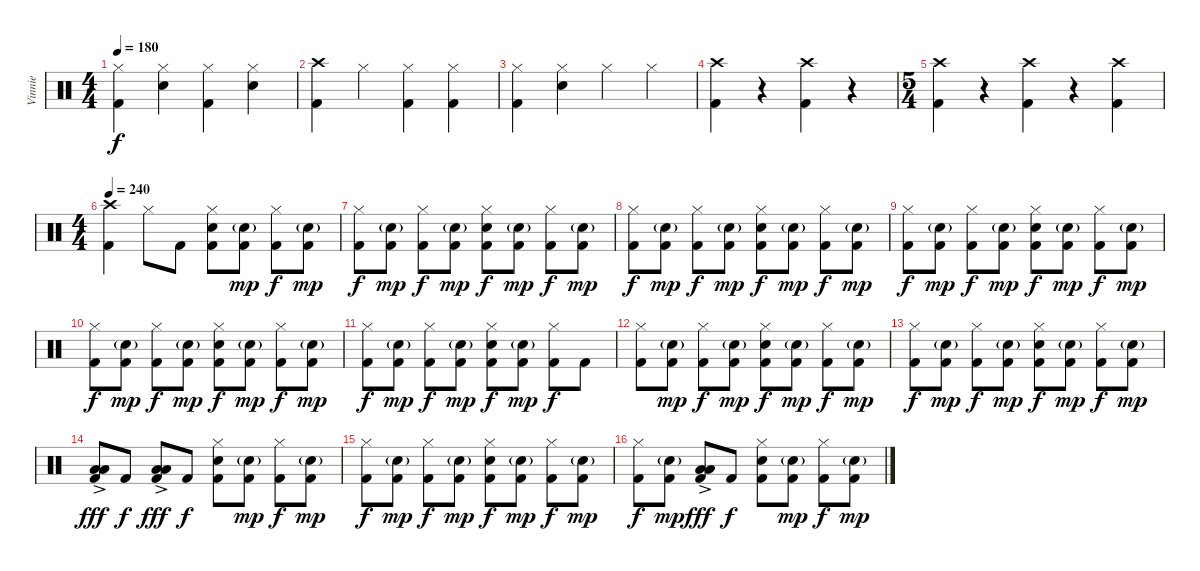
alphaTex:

\track ("Vinnie" "Vinnie") {instrument percussion}
\staff {score}
\articulation defaults
\ts (4 4)
\tempo 180
\clef neutral
\ks c
("Hi-Hat (closed)" "Kick (hit) 2").4{dy f} ("Hi-Hat (closed)" "Electric Snare (hit)").4 ("Hi-Hat (closed)" "Kick (hit) 2").4 ("Hi-Hat (closed)" "Electric Snare (hit)").4 |
("Crash high (hit)" "Kick (hit) 2").4 "Hi-Hat (closed)".4 ("Hi-Hat (closed)" "Kick (hit) 2").4 ("Hi-Hat (closed)" "Kick (hit) 2").4 |
("Hi-Hat (closed)" "Kick (hit) 2").4 ("Hi-Hat (closed)" "Electric Snare (hit)").4 "Hi-Hat (closed)".4 "Hi-Hat (closed)".4 |
("Crash high (hit)" "Kick (hit) 2").4 r.4 ("Crash high (hit)" "Kick (hit) 2").4 r.4 |
\ts (5 4)
("Crash high (hit)" "Kick (hit) 2").4 r.4 ("Crash high (hit)" "Kick (hit) 2").4 r.4 ("Crash high (hit)" "Kick (hit) 2").4 |
\ts (4 4)
\tempo 240
("Crash high (hit)" "Kick (hit) 2").4 "Hi-Hat (closed)".8 "Kick (hit) 2".8 ("Hi-Hat (closed)" "Electric Snare (hit)" "Kick (hit) 2").8 ("Electric Snare (hit)"{g} "Kick (hit) 2").8{dy mp} ("Hi-Hat (closed)" "Kick (hit) 2").8{dy f} ("Electric Snare (hit)"{g} "Kick (hit) 2").8{dy mp} |
("Hi-Hat (closed)" "Kick (hit) 2").8{dy f} ("Electric Snare (hit)"{g} "Kick (hit) 2").8{dy mp} ("Hi-Hat (closed)" "Kick (hit) 2").8{dy f} ("Electric Snare (hit)"{g} "Kick (hit) 2").8{dy mp} ("Hi-Hat (closed)" "Electric Snare (hit)" "Kick (hit) 2").8{dy f} ("Electric Snare (hit)"{g} "Kick (hit) 2").8{dy mp} ("Hi-Hat (closed)" "Kick (hit) 2").8{dy f} ("Electric Snare (hit)"{g} "Kick (hit) 2").8{dy mp} |
("Hi-Hat (closed)" "Kick (hit) 2").8{dy f} ("Electric Snare (hit)"{g} "Kick (hit) 2").8{dy mp} ("Hi-Hat (closed)" "Kick (hit) 2").8{dy f} ("Electric Snare (hit)"{g} "Kick (hit) 2").8{dy mp} ("Hi-Hat (closed)" "Electric Snare (hit)" "Kick (hit) 2").8{dy f} ("Electric Snare (hit)"{g} "Kick (hit) 2").8{dy mp} ("Hi-Hat (closed)" "Kick (hit) 2").8{dy f} ("Electric Snare (hit)"{g} "Kick (hit) 2").8{dy mp} |
("Hi-Hat (closed)" "Kick (hit) 2").8{dy f} ("Electric Snare (hit)"{g} "Kick (hit) 2").8{dy mp} ("Hi-Hat (closed)" "Kick (hit) 2").8{dy f} ("Electric Snare (hit)"{g} "Kick (hit) 2").8{dy mp} ("Hi-Hat (closed)" "Electric Snare (hit)" "Kick (hit) 2").8{dy f} ("Electric Snare (hit)"{g} "Kick (hit) 2").8{dy mp} ("Hi-Hat (closed)" "Kick (hit) 2").8{dy f} ("Electric Snare (hit)"{g} "Kick (hit) 2").8{dy mp} |
("Hi-Hat (closed)" "Kick (hit) 2").8{dy f} ("Electric Snare (hit)"{g} "Kick (hit) 2").8{dy mp} ("Hi-Hat (closed)" "Kick (hit) 2").8{dy f} ("Electric Snare (hit)"{g} "Kick (hit) 2").8{dy mp} ("Hi-Hat (closed)" "Electric Snare (hit)" "Kick (hit) 2").8{dy f} ("Electric Snare (hit)"{g} "Kick (hit) 2").8{dy mp} ("Hi-Hat (closed)" "Kick (hit) 2").8{dy f} ("Electric Snare (hit)"{g} "Kick (hit) 2").8{dy mp} |
("Hi-Hat (closed)" "Kick (hit) 2").8{dy f} ("Electric Snare (hit)"{g} "Kick (hit) 2").8{dy mp} ("Hi-Hat (closed)" "Kick (hit) 2").8{dy f} ("Electric Snare (hit)"{g} "Kick (hit) 2").8{dy mp} ("Hi-Hat (closed)" "Electric Snare (hit)" "Kick (hit) 2").8{dy f} ("Electric Snare (hit)"{g} "Kick (hit) 2").8{dy mp} ("Hi-Hat (closed)" "Kick (hit) 2").8{dy f} "Kick (hit) 2".8 |
("Hi-Hat (closed)" "Kick (hit) 2").8 ("Electric Snare (hit)"{g} "Kick (hit) 2").8{dy mp} ("Hi-Hat (closed)" "Kick (hit) 2").8{dy f} ("Electric Snare (hit)"{g} "Kick (hit) 2").8{dy mp} ("Hi-Hat (closed)" "Electric Snare (hit)" "Kick (hit) 2").8{dy f} ("Electric Snare (hit)"{g} "Kick (hit) 2").8{dy mp} ("Hi-Hat (closed)" "Kick (hit) 2").8{dy f} ("Electric Snare (hit)"{g} "Kick (hit) 2").8{dy mp} |
("Hi-Hat (closed)" "Kick (hit) 2").8{dy f} ("Electric Snare (hit)"{g} "Kick (hit) 2").8{dy mp} ("Hi-Hat (closed)" "Kick (hit) 2").8{dy f} ("Electric Snare (hit)"{g} "Kick (hit) 2").8{dy mp} ("Hi-Hat (closed)" "Electric Snare (hit)" "Kick (hit) 2").8{dy f} ("Electric Snare (hit)"{g} "Kick (hit) 2").8{dy mp} ("Hi-Hat (closed)" "Kick (hit) 2").8{dy f} ("Electric Snare (hit)"{g} "Kick (hit) 2").8{dy mp} |
("Low Tom (hit)"{ac} "Low Tom (hit)"{ac} "Kick (hit) 2").8{dy fff} "Kick (hit) 2".8{dy f} ("Low Tom (hit)"{ac} "Low Tom (hit)"{ac} "Kick (hit) 2").8{dy fff} "Kick (hit) 2".8{dy f} ("Hi-Hat (closed)" "Electric Snare (hit)" "Kick (hit) 2").8 ("Electric Snare (hit)"{g} "Kick (hit) 2").8{dy mp} ("Hi-Hat (closed)" "Kick (hit) 2").8{dy f} ("Electric Snare (hit)"{g} "Kick (hit) 2").8{dy mp} |
("Hi-Hat (closed)" "Kick (hit) 2").8{dy f} ("Electric Snare (hit)"{g} "Kick (hit) 2").8{dy mp} ("Hi-Hat (closed)" "Kick (hit) 2").8{dy f} ("Electric Snare (hit)"{g} "Kick (hit) 2").8{dy mp} ("Hi-Hat (closed)" "Electric Snare (hit)" "Kick (hit) 2").8{dy f} ("Electric Snare (hit)"{g} "Kick (hit) 2").8{dy mp} ("Hi-Hat (closed)" "Kick (hit) 2").8{dy f} ("Electric Snare (hit)"{g} "Kick (hit) 2").8{dy mp} |
("Hi-Hat (closed)" "Kick (hit) 2").8{dy f} ("Electric Snare (hit)"{g} "Kick (hit) 2").8{dy mp} ("Low Tom (hit)"{ac} "Low Tom (hit)"{ac} "Kick (hit) 2").8{dy fff} "Kick (hit) 2".8{dy f} ("Hi-Hat (closed)" "Electric Snare (hit)" "Kick (hit) 2").8 ("Electric Snare (hit)"{g} "Kick (hit) 2").8{dy mp} ("Hi-Hat (closed)" "Kick (hit) 2").8{dy f} ("Electric Snare (hit)"{g} "Kick (hit) 2").8{dy mp}
